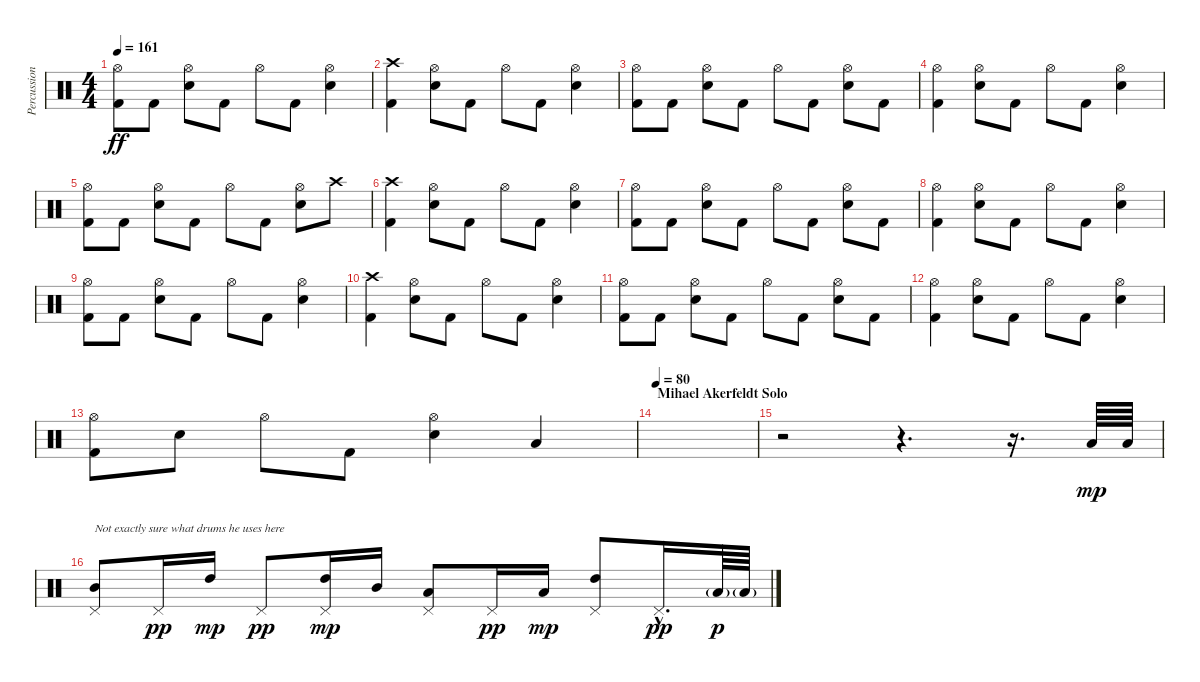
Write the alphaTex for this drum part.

\track ("Percussion" "Percussion") {instrument percussion}
\staff {score}
\articulation defaults
\ts (4 4)
\tempo 161
\clef neutral
\ks c
("Hi-Hat (open)" "Kick (hit) 2").8{dy ff} "Kick (hit) 2".8 ("Hi-Hat (open)" "Electric Snare (hit)").8 "Kick (hit) 2".8 "Hi-Hat (open)".8 "Kick (hit) 2".8 ("Hi-Hat (open)" "Electric Snare (hit)").4 |
("Crash high (hit)" "Kick (hit) 2").4 ("Hi-Hat (open)" "Electric Snare (hit)").8 "Kick (hit) 2".8 "Hi-Hat (open)".8 "Kick (hit) 2".8 ("Hi-Hat (open)" "Electric Snare (hit)").4 |
("Hi-Hat (open)" "Kick (hit) 2").8 "Kick (hit) 2".8 ("Hi-Hat (open)" "Electric Snare (hit)").8 "Kick (hit) 2".8 "Hi-Hat (open)".8 "Kick (hit) 2".8 ("Hi-Hat (open)" "Electric Snare (hit)").8 "Kick (hit) 2".8 |
("Hi-Hat (open)" "Kick (hit) 2").4 ("Hi-Hat (open)" "Electric Snare (hit)").8 "Kick (hit) 2".8 "Hi-Hat (open)".8 "Kick (hit) 2".8 ("Hi-Hat (open)" "Electric Snare (hit)").4 |
("Hi-Hat (open)" "Kick (hit) 2").8 "Kick (hit) 2".8 ("Hi-Hat (open)" "Electric Snare (hit)").8 "Kick (hit) 2".8 "Hi-Hat (open)".8 "Kick (hit) 2".8 ("Hi-Hat (open)" "Electric Snare (hit)").8 "Crash high (hit)".8 |
("Crash high (hit)" "Kick (hit) 2").4 ("Hi-Hat (open)" "Electric Snare (hit)").8 "Kick (hit) 2".8 "Hi-Hat (open)".8 "Kick (hit) 2".8 ("Hi-Hat (open)" "Electric Snare (hit)").4 |
("Hi-Hat (open)" "Kick (hit) 2").8 "Kick (hit) 2".8 ("Hi-Hat (open)" "Electric Snare (hit)").8 "Kick (hit) 2".8 "Hi-Hat (open)".8 "Kick (hit) 2".8 ("Hi-Hat (open)" "Electric Snare (hit)").8 "Kick (hit) 2".8 |
("Hi-Hat (open)" "Kick (hit) 2").4 ("Hi-Hat (open)" "Electric Snare (hit)").8 "Kick (hit) 2".8 "Hi-Hat (open)".8 "Kick (hit) 2".8 ("Hi-Hat (open)" "Electric Snare (hit)").4 |
("Hi-Hat (open)" "Kick (hit) 2").8 "Kick (hit) 2".8 ("Hi-Hat (open)" "Electric Snare (hit)").8 "Kick (hit) 2".8 "Hi-Hat (open)".8 "Kick (hit) 2".8 ("Hi-Hat (open)" "Electric Snare (hit)").4 |
("Crash high (hit)" "Kick (hit) 2").4 ("Hi-Hat (open)" "Electric Snare (hit)").8 "Kick (hit) 2".8 "Hi-Hat (open)".8 "Kick (hit) 2".8 ("Hi-Hat (open)" "Electric Snare (hit)").4 |
("Hi-Hat (open)" "Kick (hit) 2").8 "Kick (hit) 2".8 ("Hi-Hat (open)" "Electric Snare (hit)").8 "Kick (hit) 2".8 "Hi-Hat (open)".8 "Kick (hit) 2".8 ("Hi-Hat (open)" "Electric Snare (hit)").8 "Kick (hit) 2".8 |
("Hi-Hat (open)" "Kick (hit) 2").4 ("Hi-Hat (open)" "Electric Snare (hit)").8 "Kick (hit) 2".8 "Hi-Hat (open)".8 "Kick (hit) 2".8 ("Hi-Hat (open)" "Electric Snare (hit)").4 |
("Hi-Hat (open)" "Kick (hit) 2").8 "Electric Snare (hit)".8 "Hi-Hat (open)".8 "Kick (hit) 2".8 ("Hi-Hat (open)" "Electric Snare (hit)").4 "Low Floor Tom (hit)".4 |
\section ("" "Mihael Akerfeldt Solo")
\tempo 80
|
r.2 r.4{d} r.16{d} "Low Tom (hit)".64{dy mp} "Low Tom (hit)".64 |
("Pedal Hi-Hat (hit)" "Mid Tom (hit)").8{txt "Not exactly sure what drums he uses here"} "Pedal Hi-Hat (hit)".16{dy pp} "High Tom (hit)".16{dy mp} "Pedal Hi-Hat (hit)".8{dy pp} ("Pedal Hi-Hat (hit)" "High Tom (hit)").16{dy mp} "Mid Tom (hit)".16 ("Pedal Hi-Hat (hit)" "Low Tom (hit)").8 "Pedal Hi-Hat (hit)".16{dy pp} "Low Tom (hit)".16{dy mp} ("Pedal Hi-Hat (hit)" "High Tom (hit)").8 "Pedal Hi-Hat (hit)"{hac}.16{d dy pp} "Low Tom (hit)"{g}.64{dy p} "Low Tom (hit)"{g}.64
